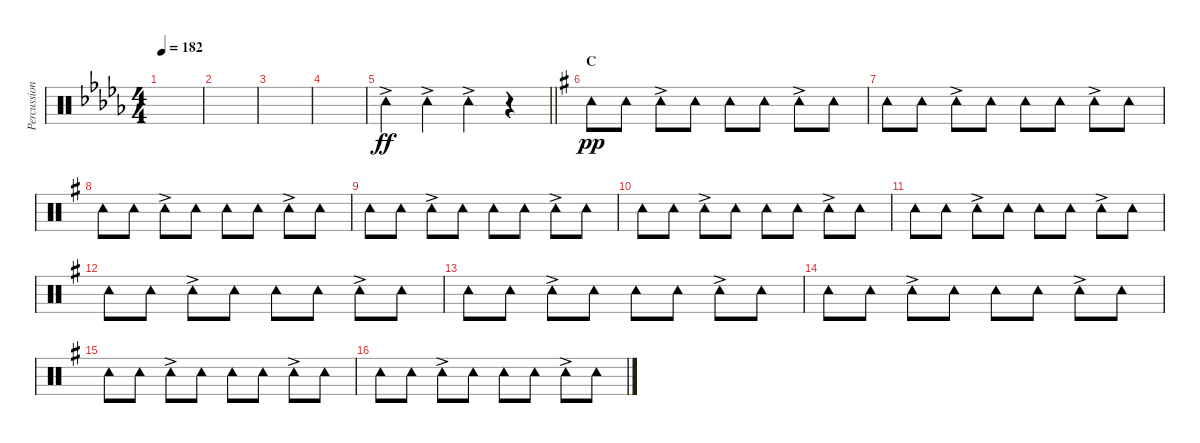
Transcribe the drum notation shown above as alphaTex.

\track ("Percussion (Tainaka Ritsu)" "Percussion") {instrument percussion}
\staff {score}
\articulation defaults
\ts (4 4)
\tempo 182
\clef neutral
\ks db
|
|
|
|
\barLineRight lightlight "Tambourine (hit)"{ac}.4{dy ff} "Tambourine (hit)"{ac}.4 "Tambourine (hit)"{ac}.4
r.4 |
\section ("" "C")
\ks g "Tambourine (hit)".8{dy pp} "Tambourine (hit)".8 "Tambourine (hit)"{ac}.8 "Tambourine (hit)".8 "Tambourine (hit)".8 "Tambourine (hit)".8 "Tambourine (hit)"{ac}.8 "Tambourine (hit)".8
|
"Tambourine (hit)".8 "Tambourine (hit)".8 "Tambourine (hit)"{ac}.8 "Tambourine (hit)".8 "Tambourine (hit)".8 "Tambourine (hit)".8 "Tambourine (hit)"{ac}.8 "Tambourine (hit)".8 |
"Tambourine (hit)".8 "Tambourine (hit)".8 "Tambourine (hit)"{ac}.8 "Tambourine (hit)".8 "Tambourine (hit)".8 "Tambourine (hit)".8 "Tambourine (hit)"{ac}.8 "Tambourine (hit)".8 |
"Tambourine (hit)".8 "Tambourine (hit)".8 "Tambourine (hit)"{ac}.8 "Tambourine (hit)".8 "Tambourine (hit)".8 "Tambourine (hit)".8 "Tambourine (hit)"{ac}.8 "Tambourine (hit)".8 |
"Tambourine (hit)".8 "Tambourine (hit)".8 "Tambourine (hit)"{ac}.8 "Tambourine (hit)".8 "Tambourine (hit)".8 "Tambourine (hit)".8 "Tambourine (hit)"{ac}.8 "Tambourine (hit)".8 |
"Tambourine (hit)".8 "Tambourine (hit)".8 "Tambourine (hit)"{ac}.8 "Tambourine (hit)".8 "Tambourine (hit)".8 "Tambourine (hit)".8 "Tambourine (hit)"{ac}.8 "Tambourine (hit)".8 |
"Tambourine (hit)".8 "Tambourine (hit)".8 "Tambourine (hit)"{ac}.8 "Tambourine (hit)".8 "Tambourine (hit)".8 "Tambourine (hit)".8 "Tambourine (hit)"{ac}.8 "Tambourine (hit)".8 |
"Tambourine (hit)".8 "Tambourine (hit)".8 "Tambourine (hit)"{ac}.8 "Tambourine (hit)".8 "Tambourine (hit)".8 "Tambourine (hit)".8 "Tambourine (hit)"{ac}.8 "Tambourine (hit)".8 |
"Tambourine (hit)".8 "Tambourine (hit)".8 "Tambourine (hit)"{ac}.8 "Tambourine (hit)".8 "Tambourine (hit)".8 "Tambourine (hit)".8 "Tambourine (hit)"{ac}.8 "Tambourine (hit)".8 |
"Tambourine (hit)".8 "Tambourine (hit)".8 "Tambourine (hit)"{ac}.8 "Tambourine (hit)".8 "Tambourine (hit)".8 "Tambourine (hit)".8 "Tambourine (hit)"{ac}.8 "Tambourine (hit)".8 |
"Tambourine (hit)".8 "Tambourine (hit)".8 "Tambourine (hit)"{ac}.8 "Tambourine (hit)".8 "Tambourine (hit)".8 "Tambourine (hit)".8 "Tambourine (hit)"{ac}.8 "Tambourine (hit)".8
